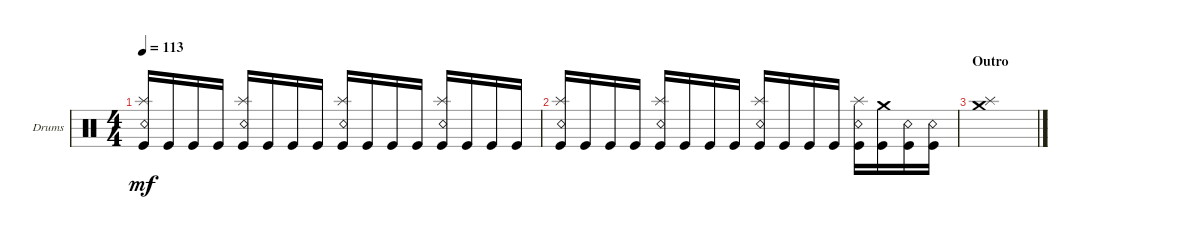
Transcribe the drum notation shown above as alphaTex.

\defaultSystemsLayout 4
\bracketExtendMode groupsimilarinstruments
\firstSystemTrackNameOrientation horizontal
\otherSystemsTrackNameOrientation horizontal
\track ("Drums" "Drums") {instrument percussion}
\staff {score}
\articulation defaults
\ts (4 4)
\tempo 113
\clef neutral
\ks c
("Kick (hit)" "Splash (hit)" "Snare (rim shot)").16{dy mf} "Kick (hit)".16 "Kick (hit)".16 "Kick (hit)".16 ("Kick (hit)" "Splash (hit)" "Snare (rim shot)").16 "Kick (hit)".16 "Kick (hit)".16 "Kick (hit)".16 ("Kick (hit)" "Splash (hit)" "Snare (rim shot)").16 "Kick (hit)".16 "Kick (hit)".16 "Kick (hit)".16 ("Kick (hit)" "Splash (hit)" "Snare (rim shot)").16 "Kick (hit)".16 "Kick (hit)".16 "Kick (hit)".16 |
("Kick (hit)" "Splash (hit)" "Snare (rim shot)").16 "Kick (hit)".16 "Kick (hit)".16 "Kick (hit)".16 ("Kick (hit)" "Splash (hit)" "Snare (rim shot)").16 "Kick (hit)".16 "Kick (hit)".16 "Kick (hit)".16 ("Kick (hit)" "Splash (hit)" "Snare (rim shot)").16 "Kick (hit)".16 "Kick (hit)".16 "Kick (hit)".16 ("Kick (hit)" "Splash (hit)" "Snare (rim shot)").16 ("Kick (hit)" "Crash medium (hit)").16 ("Kick (hit)" "Snare (rim shot)").16 ("Kick (hit)" "Snare (rim shot)").16 |
\section ("" "Outro")
("Splash (hit)" "Crash medium (hit)").1
